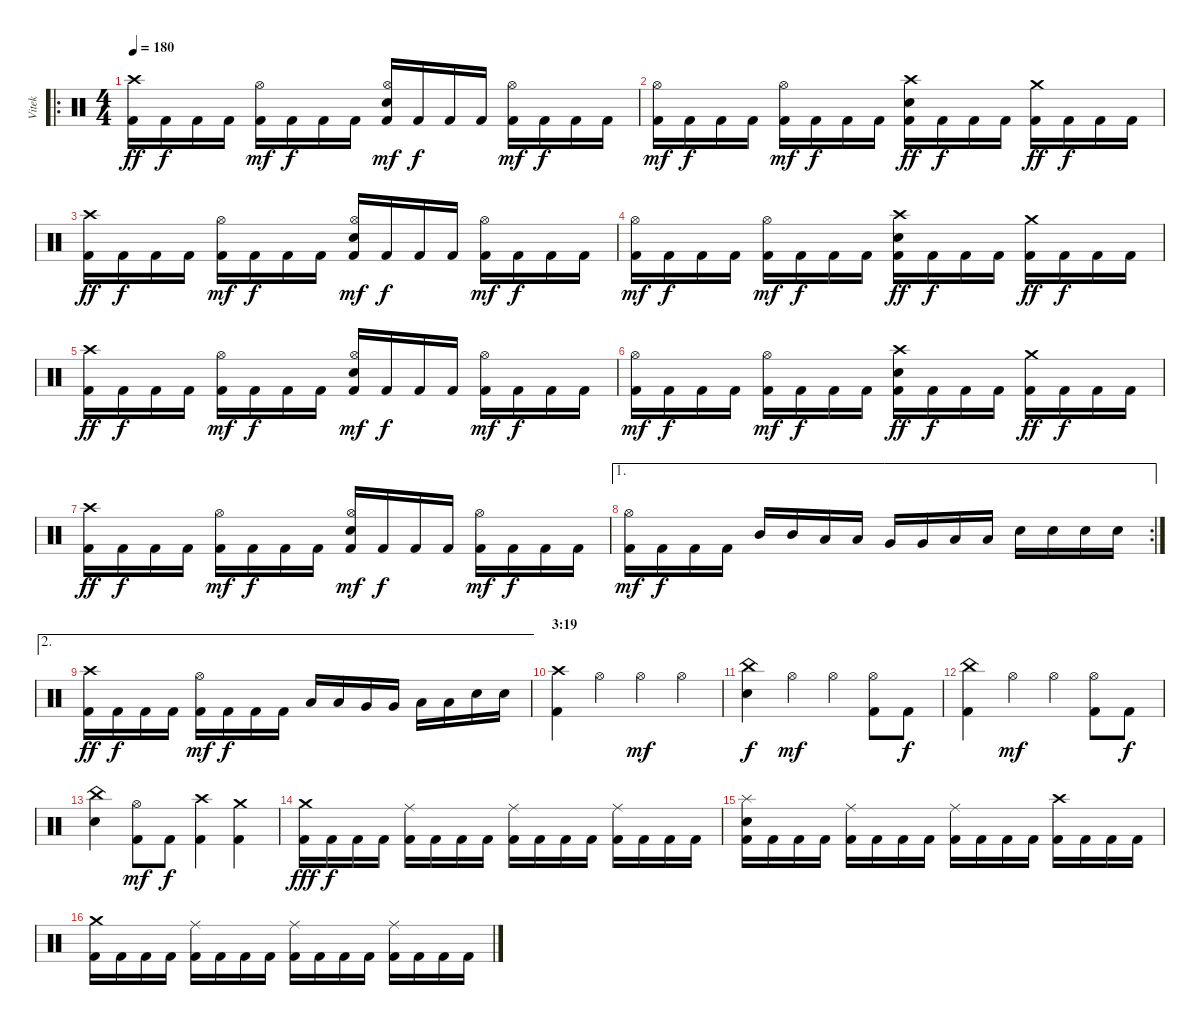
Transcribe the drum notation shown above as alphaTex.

\track ("Vitek" "Vitek") {instrument percussion}
\staff {score}
\articulation defaults
\ro
\ts (4 4)
\tempo 180
\clef neutral
\ks c
("Crash high (hit)" "Kick (hit) 2").16{dy ff} "Kick (hit) 2".16{dy f} "Kick (hit) 2".16 "Kick (hit) 2".16 ("Hi-Hat (open)" "Kick (hit) 2").16{dy mf} "Kick (hit) 2".16{dy f} "Kick (hit) 2".16 "Kick (hit) 2".16 ("Hi-Hat (open)" "Electric Snare (hit)" "Kick (hit) 2").16{dy mf} "Kick (hit) 2".16{dy f} "Kick (hit) 2".16 "Kick (hit) 2".16 ("Hi-Hat (open)" "Kick (hit) 2").16{dy mf} "Kick (hit) 2".16{dy f} "Kick (hit) 2".16 "Kick (hit) 2".16 |
("Hi-Hat (open)" "Kick (hit) 2").16{dy mf} "Kick (hit) 2".16{dy f} "Kick (hit) 2".16 "Kick (hit) 2".16 ("Hi-Hat (open)" "Kick (hit) 2").16{dy mf} "Kick (hit) 2".16{dy f} "Kick (hit) 2".16 "Kick (hit) 2".16 ("Crash high (hit)" "Electric Snare (hit)" "Kick (hit) 2").16{dy ff} "Kick (hit) 2".16{dy f} "Kick (hit) 2".16 "Kick (hit) 2".16 ("Crash medium (hit)" "Kick (hit) 2").16{dy ff} "Kick (hit) 2".16{dy f} "Kick (hit) 2".16 "Kick (hit) 2".16 |
("Crash high (hit)" "Kick (hit) 2").16{dy ff} "Kick (hit) 2".16{dy f} "Kick (hit) 2".16 "Kick (hit) 2".16 ("Hi-Hat (open)" "Kick (hit) 2").16{dy mf} "Kick (hit) 2".16{dy f} "Kick (hit) 2".16 "Kick (hit) 2".16 ("Hi-Hat (open)" "Electric Snare (hit)" "Kick (hit) 2").16{dy mf} "Kick (hit) 2".16{dy f} "Kick (hit) 2".16 "Kick (hit) 2".16 ("Hi-Hat (open)" "Kick (hit) 2").16{dy mf} "Kick (hit) 2".16{dy f} "Kick (hit) 2".16 "Kick (hit) 2".16 |
("Hi-Hat (open)" "Kick (hit) 2").16{dy mf} "Kick (hit) 2".16{dy f} "Kick (hit) 2".16 "Kick (hit) 2".16 ("Hi-Hat (open)" "Kick (hit) 2").16{dy mf} "Kick (hit) 2".16{dy f} "Kick (hit) 2".16 "Kick (hit) 2".16 ("Crash high (hit)" "Electric Snare (hit)" "Kick (hit) 2").16{dy ff} "Kick (hit) 2".16{dy f} "Kick (hit) 2".16 "Kick (hit) 2".16 ("Crash medium (hit)" "Kick (hit) 2").16{dy ff} "Kick (hit) 2".16{dy f} "Kick (hit) 2".16 "Kick (hit) 2".16 |
("Crash high (hit)" "Kick (hit) 2").16{dy ff} "Kick (hit) 2".16{dy f} "Kick (hit) 2".16 "Kick (hit) 2".16 ("Hi-Hat (open)" "Kick (hit) 2").16{dy mf} "Kick (hit) 2".16{dy f} "Kick (hit) 2".16 "Kick (hit) 2".16 ("Hi-Hat (open)" "Electric Snare (hit)" "Kick (hit) 2").16{dy mf} "Kick (hit) 2".16{dy f} "Kick (hit) 2".16 "Kick (hit) 2".16 ("Hi-Hat (open)" "Kick (hit) 2").16{dy mf} "Kick (hit) 2".16{dy f} "Kick (hit) 2".16 "Kick (hit) 2".16 |
("Hi-Hat (open)" "Kick (hit) 2").16{dy mf} "Kick (hit) 2".16{dy f} "Kick (hit) 2".16 "Kick (hit) 2".16 ("Hi-Hat (open)" "Kick (hit) 2").16{dy mf} "Kick (hit) 2".16{dy f} "Kick (hit) 2".16 "Kick (hit) 2".16 ("Crash high (hit)" "Electric Snare (hit)" "Kick (hit) 2").16{dy ff} "Kick (hit) 2".16{dy f} "Kick (hit) 2".16 "Kick (hit) 2".16 ("Crash medium (hit)" "Kick (hit) 2").16{dy ff} "Kick (hit) 2".16{dy f} "Kick (hit) 2".16 "Kick (hit) 2".16 |
("Crash high (hit)" "Kick (hit) 2").16{dy ff} "Kick (hit) 2".16{dy f} "Kick (hit) 2".16 "Kick (hit) 2".16 ("Hi-Hat (open)" "Kick (hit) 2").16{dy mf} "Kick (hit) 2".16{dy f} "Kick (hit) 2".16 "Kick (hit) 2".16 ("Hi-Hat (open)" "Electric Snare (hit)" "Kick (hit) 2").16{dy mf} "Kick (hit) 2".16{dy f} "Kick (hit) 2".16 "Kick (hit) 2".16 ("Hi-Hat (open)" "Kick (hit) 2").16{dy mf} "Kick (hit) 2".16{dy f} "Kick (hit) 2".16 "Kick (hit) 2".16 |
\ae 1
\rc 2
("Hi-Hat (open)" "Kick (hit) 2").16{dy mf} "Kick (hit) 2".16{dy f} "Kick (hit) 2".16 "Kick (hit) 2".16 "Mid Tom (hit)".16 "Mid Tom (hit)".16 "Low Tom (hit)".16 "Low Tom (hit)".16 "Very Low Tom (hit)".16 "Very Low Tom (hit)".16 "Low Floor Tom (hit)".16 "Low Floor Tom (hit)".16 "Electric Snare (hit)".16 "Electric Snare (hit)".16 "Electric Snare (hit)".16 "Electric Snare (hit)".16 |
\ae 2
("Crash high (hit)" "Kick (hit) 2").16{dy ff} "Kick (hit) 2".16{dy f} "Kick (hit) 2".16 "Kick (hit) 2".16 ("Hi-Hat (open)" "Kick (hit) 2").16{dy mf} "Kick (hit) 2".16{dy f} "Kick (hit) 2".16 "Kick (hit) 2".16 "Low Tom (hit)".16 "Low Tom (hit)".16 "Very Low Tom (hit)".16 "Very Low Tom (hit)".16 "Low Floor Tom (hit)".16 "Low Floor Tom (hit)".16 "Electric Snare (hit)".16 "Electric Snare (hit)".16 |
\section ("" "3:19")
("Crash high (hit)" "Kick (hit) 2").4 "Hi-Hat (open)".4 "Hi-Hat (open)".4{dy mf} "Hi-Hat (open)".4 |
("China (hit)" "Electric Snare (hit)").4{dy f} "Hi-Hat (open)".4{dy mf} "Hi-Hat (open)".4 ("Hi-Hat (open)" "Kick (hit) 2").8 "Kick (hit) 2".8{dy f} |
("China (hit)" "Kick (hit) 2").4 "Hi-Hat (open)".4{dy mf} "Hi-Hat (open)".4 ("Hi-Hat (open)" "Kick (hit) 2").8 "Kick (hit) 2".8{dy f} |
("China (hit)" "Electric Snare (hit)").4 ("Hi-Hat (open)" "Kick (hit) 2").8{dy mf} "Kick (hit) 2".8{dy f} ("Crash high (hit)" "Kick (hit) 2").4 ("Crash medium (hit)" "Kick (hit) 2").4 |
("Crash medium (hit)" "Kick (hit) 2").16{dy fff} "Kick (hit) 2".16{dy f} "Kick (hit) 2".16 "Kick (hit) 2".16 ("Ride (middle)" "Kick (hit) 2").16 "Kick (hit) 2".16 "Kick (hit) 2".16 "Kick (hit) 2".16 ("Ride (middle)" "Kick (hit) 2").16 "Kick (hit) 2".16 "Kick (hit) 2".16 "Kick (hit) 2".16 ("Ride (middle)" "Kick (hit) 2").16 "Kick (hit) 2".16 "Kick (hit) 2".16 "Kick (hit) 2".16 |
("Splash (hit)" "Electric Snare (hit)" "Kick (hit) 2").16 "Kick (hit) 2".16 "Kick (hit) 2".16 "Kick (hit) 2".16 ("Ride (middle)" "Kick (hit) 2").16 "Kick (hit) 2".16 "Kick (hit) 2".16 "Kick (hit) 2".16 ("Ride (middle)" "Kick (hit) 2").16 "Kick (hit) 2".16 "Kick (hit) 2".16 "Kick (hit) 2".16 ("Crash high (hit)" "Kick (hit) 2").16 "Kick (hit) 2".16 "Kick (hit) 2".16 "Kick (hit) 2".16 |
("Crash medium (hit)" "Kick (hit) 2").16 "Kick (hit) 2".16 "Kick (hit) 2".16 "Kick (hit) 2".16 ("Ride (middle)" "Kick (hit) 2").16 "Kick (hit) 2".16 "Kick (hit) 2".16 "Kick (hit) 2".16 ("Ride (middle)" "Kick (hit) 2").16 "Kick (hit) 2".16 "Kick (hit) 2".16 "Kick (hit) 2".16 ("Ride (middle)" "Kick (hit) 2").16 "Kick (hit) 2".16 "Kick (hit) 2".16 "Kick (hit) 2".16
